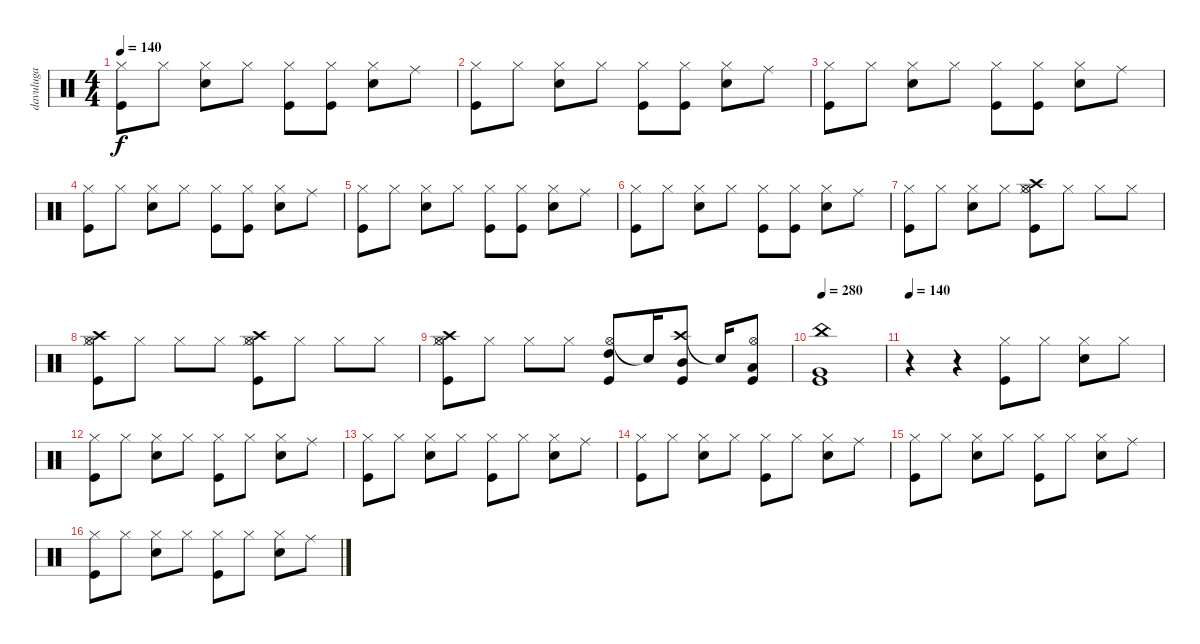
\track ("davuluga" "davuluga") {instrument percussion}
\staff {score}
\articulation defaults
\ts (4 4)
\tempo 140
\clef neutral
\ks c
("Hi-Hat (closed)" "Kick (hit)").8{dy f} "Hi-Hat (closed)".8 ("Hi-Hat (closed)" "Electric Snare (hit)").8 "Hi-Hat (closed)".8 ("Hi-Hat (closed)" "Kick (hit)").8 ("Hi-Hat (closed)" "Kick (hit)").8 ("Hi-Hat (closed)" "Electric Snare (hit)").8 "Ride (middle)".8 |
("Hi-Hat (closed)" "Kick (hit)").8 "Hi-Hat (closed)".8 ("Hi-Hat (closed)" "Electric Snare (hit)").8 "Hi-Hat (closed)".8 ("Hi-Hat (closed)" "Kick (hit)").8 ("Hi-Hat (closed)" "Kick (hit)").8 ("Hi-Hat (closed)" "Electric Snare (hit)").8 "Ride (middle)".8 |
("Hi-Hat (closed)" "Kick (hit)").8 "Hi-Hat (closed)".8 ("Hi-Hat (closed)" "Electric Snare (hit)").8 "Hi-Hat (closed)".8 ("Hi-Hat (closed)" "Kick (hit)").8 ("Hi-Hat (closed)" "Kick (hit)").8 ("Hi-Hat (closed)" "Electric Snare (hit)").8 "Ride (middle)".8 |
("Hi-Hat (closed)" "Kick (hit)").8 "Hi-Hat (closed)".8 ("Hi-Hat (closed)" "Electric Snare (hit)").8 "Hi-Hat (closed)".8 ("Hi-Hat (closed)" "Kick (hit)").8 ("Hi-Hat (closed)" "Kick (hit)").8 ("Hi-Hat (closed)" "Electric Snare (hit)").8 "Ride (middle)".8 |
("Hi-Hat (closed)" "Kick (hit)").8 "Hi-Hat (closed)".8 ("Hi-Hat (closed)" "Electric Snare (hit)").8 "Hi-Hat (closed)".8 ("Hi-Hat (closed)" "Kick (hit)").8 ("Hi-Hat (closed)" "Kick (hit)").8 ("Hi-Hat (closed)" "Electric Snare (hit)").8 "Ride (middle)".8 |
("Hi-Hat (closed)" "Kick (hit)").8 "Hi-Hat (closed)".8 ("Hi-Hat (closed)" "Electric Snare (hit)").8 "Hi-Hat (closed)".8 ("Hi-Hat (closed)" "Kick (hit)").8 ("Hi-Hat (closed)" "Kick (hit)").8 ("Hi-Hat (closed)" "Electric Snare (hit)").8 "Ride (middle)".8 |
("Hi-Hat (closed)" "Kick (hit)").8 "Hi-Hat (closed)".8 ("Hi-Hat (closed)" "Electric Snare (hit)").8 "Hi-Hat (closed)".8 ("Hi-Hat (closed)" "Crash high (hit)" "Hi-Hat (open)" "Kick (hit)").8 "Hi-Hat (closed)".8 "Hi-Hat (closed)".8 "Hi-Hat (closed)".8 |
("Hi-Hat (closed)" "Crash high (hit)" "Hi-Hat (open)" "Kick (hit)").8 "Hi-Hat (closed)".8 "Hi-Hat (closed)".8 "Hi-Hat (closed)".8 ("Hi-Hat (closed)" "Crash high (hit)" "Hi-Hat (open)" "Kick (hit)").8 "Hi-Hat (closed)".8 "Hi-Hat (closed)".8 "Hi-Hat (closed)".8 |
("Hi-Hat (closed)" "Crash high (hit)" "Hi-Hat (open)" "Kick (hit)").8 "Hi-Hat (closed)".8 "Hi-Hat (closed)".8 "Hi-Hat (closed)".8 ("Hi-Hat (open)" "High Tom (hit)" "Kick (hit)").8 "Snare (hit)"{t}.16 ("Crash high (hit)" "Mid Tom (hit)" "Kick (hit)").8 "Snare (hit)"{t}.16 ("Hi-Hat (open)" "Low Tom (hit)" "Kick (hit)").8 |
\tempo 280
("China (hit)" "Very Low Tom (hit)" "Kick (hit)").1 |
\tempo 140
r.4 r.4 ("Hi-Hat (closed)" "Kick (hit)").8 "Hi-Hat (closed)".8 ("Hi-Hat (closed)" "Electric Snare (hit)").8 "Hi-Hat (closed)".8 |
("Hi-Hat (closed)" "Kick (hit)").8 "Hi-Hat (closed)".8 ("Hi-Hat (closed)" "Electric Snare (hit)").8 "Hi-Hat (closed)".8 ("Hi-Hat (closed)" "Kick (hit)").8 "Hi-Hat (closed)".8 ("Hi-Hat (closed)" "Electric Snare (hit)").8 "Ride (middle)".8 |
("Hi-Hat (closed)" "Kick (hit)").8 "Hi-Hat (closed)".8 ("Hi-Hat (closed)" "Electric Snare (hit)").8 "Hi-Hat (closed)".8 ("Hi-Hat (closed)" "Kick (hit)").8 "Hi-Hat (closed)".8 ("Hi-Hat (closed)" "Electric Snare (hit)").8 "Ride (middle)".8 |
("Hi-Hat (closed)" "Kick (hit)").8 "Hi-Hat (closed)".8 ("Hi-Hat (closed)" "Electric Snare (hit)").8 "Hi-Hat (closed)".8 ("Hi-Hat (closed)" "Kick (hit)").8 "Hi-Hat (closed)".8 ("Hi-Hat (closed)" "Electric Snare (hit)").8 "Ride (middle)".8 |
("Hi-Hat (closed)" "Kick (hit)").8 "Hi-Hat (closed)".8 ("Hi-Hat (closed)" "Electric Snare (hit)").8 "Hi-Hat (closed)".8 ("Hi-Hat (closed)" "Kick (hit)").8 "Hi-Hat (closed)".8 ("Hi-Hat (closed)" "Electric Snare (hit)").8 "Ride (middle)".8 |
("Hi-Hat (closed)" "Kick (hit)").8 "Hi-Hat (closed)".8 ("Hi-Hat (closed)" "Electric Snare (hit)").8 "Hi-Hat (closed)".8 ("Hi-Hat (closed)" "Kick (hit)").8 "Hi-Hat (closed)".8 ("Hi-Hat (closed)" "Electric Snare (hit)").8 "Ride (middle)".8
